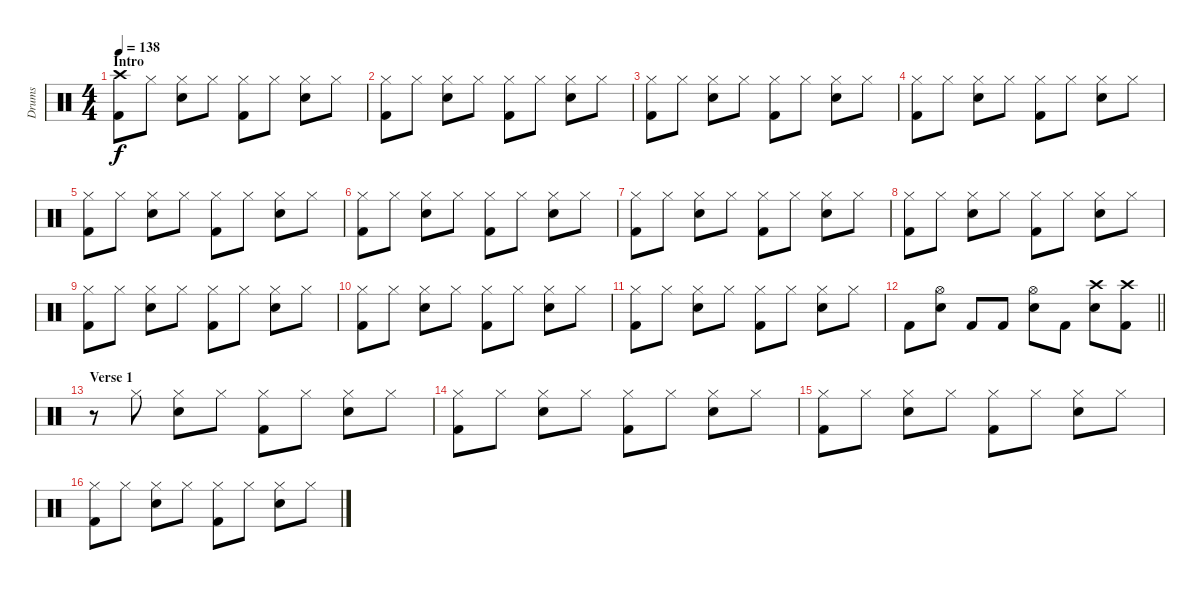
\track ("Drums" "Drums") {instrument percussion}
\staff {score}
\articulation defaults
\ts (4 4)
\section ("" "Intro")
\tempo 138
\clef neutral
\ks c
("Crash high (hit)" "Kick (hit) 2").8{dy f} "Hi-Hat (closed)".8 ("Hi-Hat (closed)" "Snare (hit) 2").8 "Hi-Hat (closed)".8 ("Hi-Hat (closed)" "Kick (hit) 2").8 "Hi-Hat (closed)".8 ("Hi-Hat (closed)" "Snare (hit) 2").8 "Hi-Hat (closed)".8 |
("Hi-Hat (closed)" "Kick (hit) 2").8 "Hi-Hat (closed)".8 ("Hi-Hat (closed)" "Snare (hit) 2").8 "Hi-Hat (closed)".8 ("Hi-Hat (closed)" "Kick (hit) 2").8 "Hi-Hat (closed)".8 ("Hi-Hat (closed)" "Snare (hit) 2").8 "Hi-Hat (closed)".8 |
("Hi-Hat (closed)" "Kick (hit) 2").8 "Hi-Hat (closed)".8 ("Hi-Hat (closed)" "Snare (hit) 2").8 "Hi-Hat (closed)".8 ("Hi-Hat (closed)" "Kick (hit) 2").8 "Hi-Hat (closed)".8 ("Hi-Hat (closed)" "Snare (hit) 2").8 "Hi-Hat (closed)".8 |
("Hi-Hat (closed)" "Kick (hit) 2").8 "Hi-Hat (closed)".8 ("Hi-Hat (closed)" "Snare (hit) 2").8 "Hi-Hat (closed)".8 ("Hi-Hat (closed)" "Kick (hit) 2").8 "Hi-Hat (closed)".8 ("Hi-Hat (closed)" "Snare (hit) 2").8 "Hi-Hat (closed)".8 |
("Hi-Hat (closed)" "Kick (hit) 2").8 "Hi-Hat (closed)".8 ("Hi-Hat (closed)" "Snare (hit) 2").8 "Hi-Hat (closed)".8 ("Hi-Hat (closed)" "Kick (hit) 2").8 "Hi-Hat (closed)".8 ("Hi-Hat (closed)" "Snare (hit) 2").8 "Hi-Hat (closed)".8 |
("Hi-Hat (closed)" "Kick (hit) 2").8 "Hi-Hat (closed)".8 ("Hi-Hat (closed)" "Snare (hit) 2").8 "Hi-Hat (closed)".8 ("Hi-Hat (closed)" "Kick (hit) 2").8 "Hi-Hat (closed)".8 ("Hi-Hat (closed)" "Snare (hit) 2").8 "Hi-Hat (closed)".8 |
("Hi-Hat (closed)" "Kick (hit) 2").8 "Hi-Hat (closed)".8 ("Hi-Hat (closed)" "Snare (hit) 2").8 "Hi-Hat (closed)".8 ("Hi-Hat (closed)" "Kick (hit) 2").8 "Hi-Hat (closed)".8 ("Hi-Hat (closed)" "Snare (hit) 2").8 "Hi-Hat (closed)".8 |
("Hi-Hat (closed)" "Kick (hit) 2").8 "Hi-Hat (closed)".8 ("Hi-Hat (closed)" "Snare (hit) 2").8 "Hi-Hat (closed)".8 ("Hi-Hat (closed)" "Kick (hit) 2").8 "Hi-Hat (closed)".8 ("Hi-Hat (closed)" "Snare (hit) 2").8 "Hi-Hat (closed)".8 |
("Hi-Hat (closed)" "Kick (hit) 2").8 "Hi-Hat (closed)".8 ("Hi-Hat (closed)" "Snare (hit) 2").8 "Hi-Hat (closed)".8 ("Hi-Hat (closed)" "Kick (hit) 2").8 "Hi-Hat (closed)".8 ("Hi-Hat (closed)" "Snare (hit) 2").8 "Hi-Hat (closed)".8 |
("Hi-Hat (closed)" "Kick (hit) 2").8 "Hi-Hat (closed)".8 ("Hi-Hat (closed)" "Snare (hit) 2").8 "Hi-Hat (closed)".8 ("Hi-Hat (closed)" "Kick (hit) 2").8 "Hi-Hat (closed)".8 ("Hi-Hat (closed)" "Snare (hit) 2").8 "Hi-Hat (closed)".8 |
("Hi-Hat (closed)" "Kick (hit) 2").8 "Hi-Hat (closed)".8 ("Hi-Hat (closed)" "Snare (hit) 2").8 "Hi-Hat (closed)".8 ("Hi-Hat (closed)" "Kick (hit) 2").8 "Hi-Hat (closed)".8 ("Hi-Hat (closed)" "Snare (hit) 2").8 "Hi-Hat (closed)".8 |
\barLineRight lightlight "Kick (hit) 2".8
("Hi-Hat (open)" "Snare (hit) 2").8 "Kick (hit) 2".8 "Kick (hit) 2".8 ("Hi-Hat (open)" "Snare (hit) 2").8 "Kick (hit) 2".8 ("Crash high (hit)" "Snare (hit) 2").8 ("Crash high (hit)" "Kick (hit) 2").8 |
\section ("" "Verse 1")
r.8 "Hi-Hat (closed)".8 ("Hi-Hat (closed)" "Snare (hit) 2").8 "Hi-Hat (closed)".8 ("Hi-Hat (closed)" "Kick (hit) 2").8 "Hi-Hat (closed)".8 ("Hi-Hat (closed)" "Snare (hit) 2").8 "Hi-Hat (closed)".8 |
("Hi-Hat (closed)" "Kick (hit) 2").8 "Hi-Hat (closed)".8 ("Hi-Hat (closed)" "Snare (hit) 2").8 "Hi-Hat (closed)".8 ("Hi-Hat (closed)" "Kick (hit) 2").8 "Hi-Hat (closed)".8 ("Hi-Hat (closed)" "Snare (hit) 2").8 "Hi-Hat (closed)".8 |
("Hi-Hat (closed)" "Kick (hit) 2").8 "Hi-Hat (closed)".8 ("Hi-Hat (closed)" "Snare (hit) 2").8 "Hi-Hat (closed)".8 ("Hi-Hat (closed)" "Kick (hit) 2").8 "Hi-Hat (closed)".8 ("Hi-Hat (closed)" "Snare (hit) 2").8 "Hi-Hat (closed)".8 |
("Hi-Hat (closed)" "Kick (hit) 2").8 "Hi-Hat (closed)".8 ("Hi-Hat (closed)" "Snare (hit) 2").8 "Hi-Hat (closed)".8 ("Hi-Hat (closed)" "Kick (hit) 2").8 "Hi-Hat (closed)".8 ("Hi-Hat (closed)" "Snare (hit) 2").8 "Hi-Hat (closed)".8
